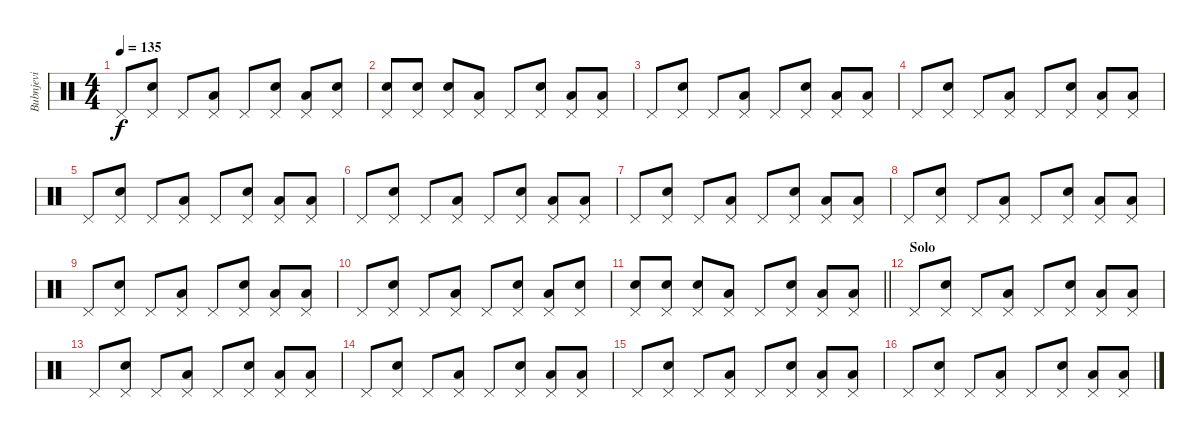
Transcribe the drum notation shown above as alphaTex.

\track ("Bubnjevi" "Bubnjevi") {instrument percussion}
\staff {score}
\articulation defaults
\ts (4 4)
\tempo 135
\clef neutral
\ks c "Pedal Hi-Hat (hit)".8{dy f}
("Pedal Hi-Hat (hit)" "Snare (hit) 2").8 "Pedal Hi-Hat (hit)".8 ("Pedal Hi-Hat (hit)" "Low Tom (hit)").8 "Pedal Hi-Hat (hit)".8 ("Pedal Hi-Hat (hit)" "Snare (hit) 2").8 ("Pedal Hi-Hat (hit)" "Low Tom (hit)").8 ("Pedal Hi-Hat (hit)" "Snare (hit) 2").8 |
("Pedal Hi-Hat (hit)" "Snare (hit) 2").8 ("Pedal Hi-Hat (hit)" "Snare (hit) 2").8 ("Pedal Hi-Hat (hit)" "Snare (hit) 2").8 ("Pedal Hi-Hat (hit)" "Low Tom (hit)").8 "Pedal Hi-Hat (hit)".8 ("Pedal Hi-Hat (hit)" "Snare (hit) 2").8 ("Pedal Hi-Hat (hit)" "Low Tom (hit)").8 ("Pedal Hi-Hat (hit)" "Low Tom (hit)").8 |
"Pedal Hi-Hat (hit)".8 ("Pedal Hi-Hat (hit)" "Snare (hit) 2").8 "Pedal Hi-Hat (hit)".8 ("Pedal Hi-Hat (hit)" "Low Tom (hit)").8 "Pedal Hi-Hat (hit)".8 ("Pedal Hi-Hat (hit)" "Snare (hit) 2").8 ("Pedal Hi-Hat (hit)" "Low Tom (hit)").8 ("Pedal Hi-Hat (hit)" "Low Tom (hit)").8 |
"Pedal Hi-Hat (hit)".8 ("Pedal Hi-Hat (hit)" "Snare (hit) 2").8 "Pedal Hi-Hat (hit)".8 ("Pedal Hi-Hat (hit)" "Low Tom (hit)").8 "Pedal Hi-Hat (hit)".8 ("Pedal Hi-Hat (hit)" "Snare (hit) 2").8 ("Pedal Hi-Hat (hit)" "Low Tom (hit)").8 ("Pedal Hi-Hat (hit)" "Low Tom (hit)").8 |
"Pedal Hi-Hat (hit)".8 ("Pedal Hi-Hat (hit)" "Snare (hit) 2").8 "Pedal Hi-Hat (hit)".8 ("Pedal Hi-Hat (hit)" "Low Tom (hit)").8 "Pedal Hi-Hat (hit)".8 ("Pedal Hi-Hat (hit)" "Snare (hit) 2").8 ("Pedal Hi-Hat (hit)" "Low Tom (hit)").8 ("Pedal Hi-Hat (hit)" "Low Tom (hit)").8 |
"Pedal Hi-Hat (hit)".8 ("Pedal Hi-Hat (hit)" "Snare (hit) 2").8 "Pedal Hi-Hat (hit)".8 ("Pedal Hi-Hat (hit)" "Low Tom (hit)").8 "Pedal Hi-Hat (hit)".8 ("Pedal Hi-Hat (hit)" "Snare (hit) 2").8 ("Pedal Hi-Hat (hit)" "Low Tom (hit)").8 ("Pedal Hi-Hat (hit)" "Low Tom (hit)").8 |
"Pedal Hi-Hat (hit)".8 ("Pedal Hi-Hat (hit)" "Snare (hit) 2").8 "Pedal Hi-Hat (hit)".8 ("Pedal Hi-Hat (hit)" "Low Tom (hit)").8 "Pedal Hi-Hat (hit)".8 ("Pedal Hi-Hat (hit)" "Snare (hit) 2").8 ("Pedal Hi-Hat (hit)" "Low Tom (hit)").8 ("Pedal Hi-Hat (hit)" "Low Tom (hit)").8 |
"Pedal Hi-Hat (hit)".8 ("Pedal Hi-Hat (hit)" "Snare (hit) 2").8 "Pedal Hi-Hat (hit)".8 ("Pedal Hi-Hat (hit)" "Low Tom (hit)").8 "Pedal Hi-Hat (hit)".8 ("Pedal Hi-Hat (hit)" "Snare (hit) 2").8 ("Pedal Hi-Hat (hit)" "Low Tom (hit)").8 ("Pedal Hi-Hat (hit)" "Low Tom (hit)").8 |
"Pedal Hi-Hat (hit)".8 ("Pedal Hi-Hat (hit)" "Snare (hit) 2").8 "Pedal Hi-Hat (hit)".8 ("Pedal Hi-Hat (hit)" "Low Tom (hit)").8 "Pedal Hi-Hat (hit)".8 ("Pedal Hi-Hat (hit)" "Snare (hit) 2").8 ("Pedal Hi-Hat (hit)" "Low Tom (hit)").8 ("Pedal Hi-Hat (hit)" "Low Tom (hit)").8 |
"Pedal Hi-Hat (hit)".8 ("Pedal Hi-Hat (hit)" "Snare (hit) 2").8 "Pedal Hi-Hat (hit)".8 ("Pedal Hi-Hat (hit)" "Low Tom (hit)").8 "Pedal Hi-Hat (hit)".8 ("Pedal Hi-Hat (hit)" "Snare (hit) 2").8 ("Pedal Hi-Hat (hit)" "Low Tom (hit)").8 ("Pedal Hi-Hat (hit)" "Snare (hit) 2").8 |
\barLineRight lightlight
("Pedal Hi-Hat (hit)" "Snare (hit) 2").8 ("Pedal Hi-Hat (hit)" "Snare (hit) 2").8 ("Pedal Hi-Hat (hit)" "Snare (hit) 2").8 ("Pedal Hi-Hat (hit)" "Low Tom (hit)").8 "Pedal Hi-Hat (hit)".8 ("Pedal Hi-Hat (hit)" "Snare (hit) 2").8 ("Pedal Hi-Hat (hit)" "Low Tom (hit)").8 ("Pedal Hi-Hat (hit)" "Low Tom (hit)").8 |
\section ("" "Solo")
"Pedal Hi-Hat (hit)".8 ("Pedal Hi-Hat (hit)" "Snare (hit) 2").8 "Pedal Hi-Hat (hit)".8 ("Pedal Hi-Hat (hit)" "Low Tom (hit)").8 "Pedal Hi-Hat (hit)".8 ("Pedal Hi-Hat (hit)" "Snare (hit) 2").8 ("Pedal Hi-Hat (hit)" "Low Tom (hit)").8 ("Pedal Hi-Hat (hit)" "Low Tom (hit)").8 |
"Pedal Hi-Hat (hit)".8 ("Pedal Hi-Hat (hit)" "Snare (hit) 2").8 "Pedal Hi-Hat (hit)".8 ("Pedal Hi-Hat (hit)" "Low Tom (hit)").8 "Pedal Hi-Hat (hit)".8 ("Pedal Hi-Hat (hit)" "Snare (hit) 2").8 ("Pedal Hi-Hat (hit)" "Low Tom (hit)").8 ("Pedal Hi-Hat (hit)" "Low Tom (hit)").8 |
"Pedal Hi-Hat (hit)".8 ("Pedal Hi-Hat (hit)" "Snare (hit) 2").8 "Pedal Hi-Hat (hit)".8 ("Pedal Hi-Hat (hit)" "Low Tom (hit)").8 "Pedal Hi-Hat (hit)".8 ("Pedal Hi-Hat (hit)" "Snare (hit) 2").8 ("Pedal Hi-Hat (hit)" "Low Tom (hit)").8 ("Pedal Hi-Hat (hit)" "Low Tom (hit)").8 |
"Pedal Hi-Hat (hit)".8 ("Pedal Hi-Hat (hit)" "Snare (hit) 2").8 "Pedal Hi-Hat (hit)".8 ("Pedal Hi-Hat (hit)" "Low Tom (hit)").8 "Pedal Hi-Hat (hit)".8 ("Pedal Hi-Hat (hit)" "Snare (hit) 2").8 ("Pedal Hi-Hat (hit)" "Low Tom (hit)").8 ("Pedal Hi-Hat (hit)" "Low Tom (hit)").8 |
"Pedal Hi-Hat (hit)".8 ("Pedal Hi-Hat (hit)" "Snare (hit) 2").8 "Pedal Hi-Hat (hit)".8 ("Pedal Hi-Hat (hit)" "Low Tom (hit)").8 "Pedal Hi-Hat (hit)".8 ("Pedal Hi-Hat (hit)" "Snare (hit) 2").8 ("Pedal Hi-Hat (hit)" "Low Tom (hit)").8 ("Pedal Hi-Hat (hit)" "Low Tom (hit)").8
